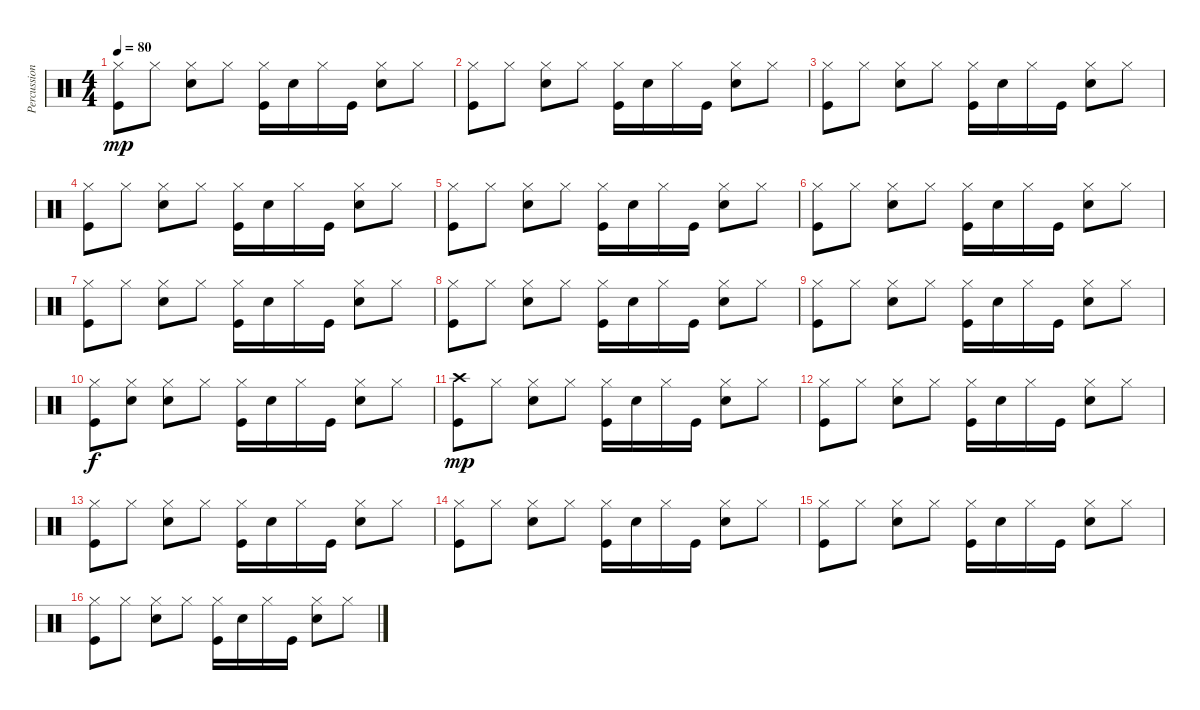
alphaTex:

\track ("Percussion" "Percussion") {instrument percussion}
\staff {score}
\articulation defaults
\ts (4 4)
\tempo 80
\clef neutral
\ks c
("Hi-Hat (closed)" "Kick (hit)").8{dy mp} "Hi-Hat (closed)".8 ("Hi-Hat (closed)" "Snare (hit) 2").8 "Hi-Hat (closed)".8 ("Hi-Hat (closed)" "Kick (hit)").16 "Snare (hit) 2".16 "Hi-Hat (closed)".16 "Kick (hit)".16 ("Hi-Hat (closed)" "Snare (hit) 2").8 "Hi-Hat (closed)".8 |
("Hi-Hat (closed)" "Kick (hit)").8 "Hi-Hat (closed)".8 ("Hi-Hat (closed)" "Snare (hit) 2").8 "Hi-Hat (closed)".8 ("Hi-Hat (closed)" "Kick (hit)").16 "Snare (hit) 2".16 "Hi-Hat (closed)".16 "Kick (hit)".16 ("Hi-Hat (closed)" "Snare (hit) 2").8 "Hi-Hat (closed)".8 |
("Hi-Hat (closed)" "Kick (hit)").8 "Hi-Hat (closed)".8 ("Hi-Hat (closed)" "Snare (hit) 2").8 "Hi-Hat (closed)".8 ("Hi-Hat (closed)" "Kick (hit)").16 "Snare (hit) 2".16 "Hi-Hat (closed)".16 "Kick (hit)".16 ("Hi-Hat (closed)" "Snare (hit) 2").8 "Hi-Hat (closed)".8 |
("Hi-Hat (closed)" "Kick (hit)").8 "Hi-Hat (closed)".8 ("Hi-Hat (closed)" "Snare (hit) 2").8 "Hi-Hat (closed)".8 ("Hi-Hat (closed)" "Kick (hit)").16 "Snare (hit) 2".16 "Hi-Hat (closed)".16 "Kick (hit)".16 ("Hi-Hat (closed)" "Snare (hit) 2").8 "Hi-Hat (closed)".8 |
("Hi-Hat (closed)" "Kick (hit)").8 "Hi-Hat (closed)".8 ("Hi-Hat (closed)" "Snare (hit) 2").8 "Hi-Hat (closed)".8 ("Hi-Hat (closed)" "Kick (hit)").16 "Snare (hit) 2".16 "Hi-Hat (closed)".16 "Kick (hit)".16 ("Hi-Hat (closed)" "Snare (hit) 2").8 "Hi-Hat (closed)".8 |
("Hi-Hat (closed)" "Kick (hit)").8 "Hi-Hat (closed)".8 ("Hi-Hat (closed)" "Snare (hit) 2").8 "Hi-Hat (closed)".8 ("Hi-Hat (closed)" "Kick (hit)").16 "Snare (hit) 2".16 "Hi-Hat (closed)".16 "Kick (hit)".16 ("Hi-Hat (closed)" "Snare (hit) 2").8 "Hi-Hat (closed)".8 |
("Hi-Hat (closed)" "Kick (hit)").8 "Hi-Hat (closed)".8 ("Hi-Hat (closed)" "Snare (hit) 2").8 "Hi-Hat (closed)".8 ("Hi-Hat (closed)" "Kick (hit)").16 "Snare (hit) 2".16 "Hi-Hat (closed)".16 "Kick (hit)".16 ("Hi-Hat (closed)" "Snare (hit) 2").8 "Hi-Hat (closed)".8 |
("Hi-Hat (closed)" "Kick (hit)").8 "Hi-Hat (closed)".8 ("Hi-Hat (closed)" "Snare (hit) 2").8 "Hi-Hat (closed)".8 ("Hi-Hat (closed)" "Kick (hit)").16 "Snare (hit) 2".16 "Hi-Hat (closed)".16 "Kick (hit)".16 ("Hi-Hat (closed)" "Snare (hit) 2").8 "Hi-Hat (closed)".8 |
("Hi-Hat (closed)" "Kick (hit)").8 "Hi-Hat (closed)".8 ("Hi-Hat (closed)" "Snare (hit) 2").8 "Hi-Hat (closed)".8 ("Hi-Hat (closed)" "Kick (hit)").16 "Snare (hit) 2".16 "Hi-Hat (closed)".16 "Kick (hit)".16 ("Hi-Hat (closed)" "Snare (hit) 2").8 "Hi-Hat (closed)".8 |
("Hi-Hat (closed)" "Kick (hit)").8{dy f} ("Hi-Hat (closed)" "Snare (hit) 2").8 ("Hi-Hat (closed)" "Snare (hit) 2").8 "Hi-Hat (closed)".8 ("Hi-Hat (closed)" "Kick (hit)").16 "Snare (hit) 2".16 "Hi-Hat (closed)".16 "Kick (hit)".16 ("Hi-Hat (closed)" "Snare (hit) 2").8 "Hi-Hat (closed)".8 |
("Crash high (hit)" "Kick (hit)").8{dy mp} "Hi-Hat (closed)".8 ("Hi-Hat (closed)" "Snare (hit) 2").8 "Hi-Hat (closed)".8 ("Hi-Hat (closed)" "Kick (hit)").16 "Snare (hit) 2".16 "Hi-Hat (closed)".16 "Kick (hit)".16 ("Hi-Hat (closed)" "Snare (hit) 2").8 "Hi-Hat (closed)".8 |
("Hi-Hat (closed)" "Kick (hit)").8 "Hi-Hat (closed)".8 ("Hi-Hat (closed)" "Snare (hit) 2").8 "Hi-Hat (closed)".8 ("Hi-Hat (closed)" "Kick (hit)").16 "Snare (hit) 2".16 "Hi-Hat (closed)".16 "Kick (hit)".16 ("Hi-Hat (closed)" "Snare (hit) 2").8 "Hi-Hat (closed)".8 |
("Hi-Hat (closed)" "Kick (hit)").8 "Hi-Hat (closed)".8 ("Hi-Hat (closed)" "Snare (hit) 2").8 "Hi-Hat (closed)".8 ("Hi-Hat (closed)" "Kick (hit)").16 "Snare (hit) 2".16 "Hi-Hat (closed)".16 "Kick (hit)".16 ("Hi-Hat (closed)" "Snare (hit) 2").8 "Hi-Hat (closed)".8 |
("Hi-Hat (closed)" "Kick (hit)").8 "Hi-Hat (closed)".8 ("Hi-Hat (closed)" "Snare (hit) 2").8 "Hi-Hat (closed)".8 ("Hi-Hat (closed)" "Kick (hit)").16 "Snare (hit) 2".16 "Hi-Hat (closed)".16 "Kick (hit)".16 ("Hi-Hat (closed)" "Snare (hit) 2").8 "Hi-Hat (closed)".8 |
("Hi-Hat (closed)" "Kick (hit)").8 "Hi-Hat (closed)".8 ("Hi-Hat (closed)" "Snare (hit) 2").8 "Hi-Hat (closed)".8 ("Hi-Hat (closed)" "Kick (hit)").16 "Snare (hit) 2".16 "Hi-Hat (closed)".16 "Kick (hit)".16 ("Hi-Hat (closed)" "Snare (hit) 2").8 "Hi-Hat (closed)".8 |
("Hi-Hat (closed)" "Kick (hit)").8 "Hi-Hat (closed)".8 ("Hi-Hat (closed)" "Snare (hit) 2").8 "Hi-Hat (closed)".8 ("Hi-Hat (closed)" "Kick (hit)").16 "Snare (hit) 2".16 "Hi-Hat (closed)".16 "Kick (hit)".16 ("Hi-Hat (closed)" "Snare (hit) 2").8 "Hi-Hat (closed)".8
